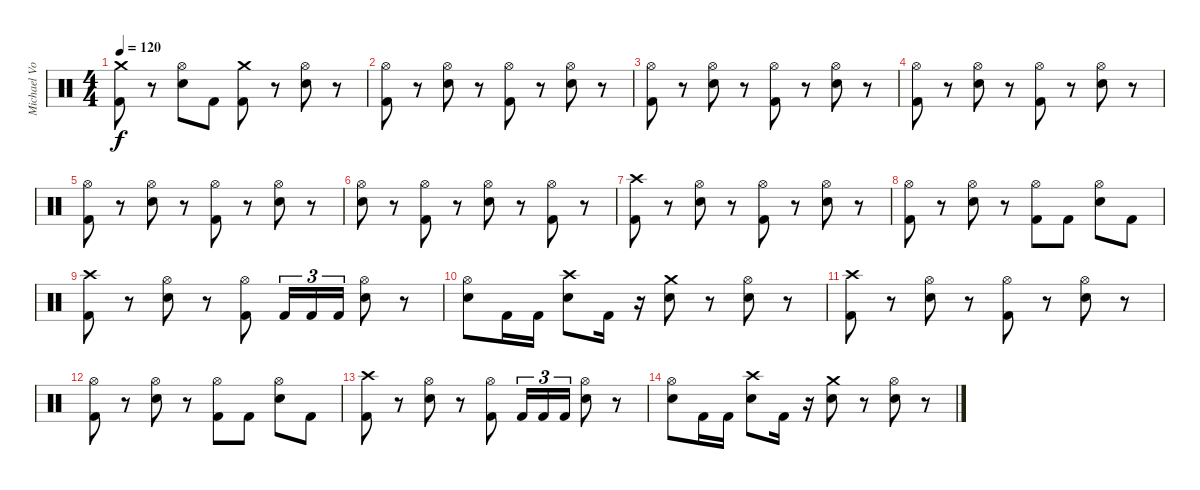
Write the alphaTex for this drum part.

\track ("Michael Von Knorring" "Michael Vo") {instrument percussion}
\staff {score}
\articulation defaults
\ts (4 4)
\tempo 120
\clef neutral
\ks c
("Crash medium (hit)" "Kick (hit) 2").8{dy f} r.8 ("Hi-Hat (open)" "Snare (hit) 2").8 "Kick (hit) 2".8 ("Crash medium (hit)" "Kick (hit) 2").8 r.8 ("Hi-Hat (open)" "Snare (hit) 2").8 r.8 |
("Hi-Hat (open)" "Kick (hit) 2").8 r.8 ("Hi-Hat (open)" "Snare (hit) 2").8 r.8 ("Hi-Hat (open)" "Kick (hit) 2").8 r.8 ("Hi-Hat (open)" "Snare (hit) 2").8 r.8 |
("Hi-Hat (open)" "Kick (hit) 2").8 r.8 ("Hi-Hat (open)" "Snare (hit) 2").8 r.8 ("Hi-Hat (open)" "Kick (hit) 2").8 r.8 ("Hi-Hat (open)" "Snare (hit) 2").8 r.8 |
("Hi-Hat (open)" "Kick (hit) 2").8 r.8 ("Hi-Hat (open)" "Snare (hit) 2").8 r.8 ("Hi-Hat (open)" "Kick (hit) 2").8 r.8 ("Hi-Hat (open)" "Snare (hit) 2").8 r.8 |
("Hi-Hat (open)" "Kick (hit) 2").8 r.8 ("Hi-Hat (open)" "Snare (hit) 2").8 r.8 ("Hi-Hat (open)" "Kick (hit) 2").8 r.8 ("Hi-Hat (open)" "Snare (hit) 2").8 r.8 |
("Hi-Hat (open)" "Snare (hit) 2").8 r.8 ("Hi-Hat (open)" "Kick (hit) 2").8 r.8 ("Hi-Hat (open)" "Snare (hit) 2").8 r.8 ("Hi-Hat (open)" "Kick (hit) 2").8 r.8 |
("Crash high (hit)" "Kick (hit) 2").8 r.8 ("Hi-Hat (open)" "Snare (hit) 2").8 r.8 ("Hi-Hat (open)" "Kick (hit) 2").8 r.8 ("Hi-Hat (open)" "Snare (hit) 2").8 r.8 |
("Hi-Hat (open)" "Kick (hit) 2").8 r.8 ("Hi-Hat (open)" "Snare (hit) 2").8 r.8 ("Kick (hit) 2" "Hi-Hat (open)").8 "Kick (hit) 2".8 ("Hi-Hat (open)" "Snare (hit) 2").8 "Kick (hit) 2".8 |
("Crash high (hit)" "Kick (hit) 2").8 r.8 ("Hi-Hat (open)" "Snare (hit) 2").8 r.8 ("Hi-Hat (open)" "Kick (hit) 2").8 "Kick (hit) 2".16{tu (3 2)} "Kick (hit) 2".16{tu (3 2)} "Kick (hit) 2".16{tu (3 2)} ("Hi-Hat (open)" "Snare (hit) 2").8 r.8 |
("Hi-Hat (open)" "Snare (hit) 2").8 "Kick (hit) 2".16 "Kick (hit) 2".16 ("Crash high (hit)" "Snare (hit) 2").8 "Kick (hit) 2".16 r.16 ("Crash medium (hit)" "Snare (hit) 2").8 r.8 ("Hi-Hat (open)" "Snare (hit) 2").8 r.8 |
("Crash high (hit)" "Kick (hit) 2").8 r.8 ("Hi-Hat (open)" "Snare (hit) 2").8 r.8 ("Hi-Hat (open)" "Kick (hit) 2").8 r.8 ("Hi-Hat (open)" "Snare (hit) 2").8 r.8 |
("Hi-Hat (open)" "Kick (hit) 2").8 r.8 ("Hi-Hat (open)" "Snare (hit) 2").8 r.8 ("Kick (hit) 2" "Hi-Hat (open)").8 "Kick (hit) 2".8 ("Hi-Hat (open)" "Snare (hit) 2").8 "Kick (hit) 2".8 |
("Crash high (hit)" "Kick (hit) 2").8 r.8 ("Hi-Hat (open)" "Snare (hit) 2").8 r.8 ("Hi-Hat (open)" "Kick (hit) 2").8 "Kick (hit) 2".16{tu (3 2)} "Kick (hit) 2".16{tu (3 2)} "Kick (hit) 2".16{tu (3 2)} ("Hi-Hat (open)" "Snare (hit) 2").8 r.8 |
("Hi-Hat (open)" "Snare (hit) 2").8 "Kick (hit) 2".16 "Kick (hit) 2".16 ("Crash high (hit)" "Snare (hit) 2").8 "Kick (hit) 2".16 r.16 ("Crash medium (hit)" "Snare (hit) 2").8 r.8 ("Hi-Hat (open)" "Snare (hit) 2").8 r.8
